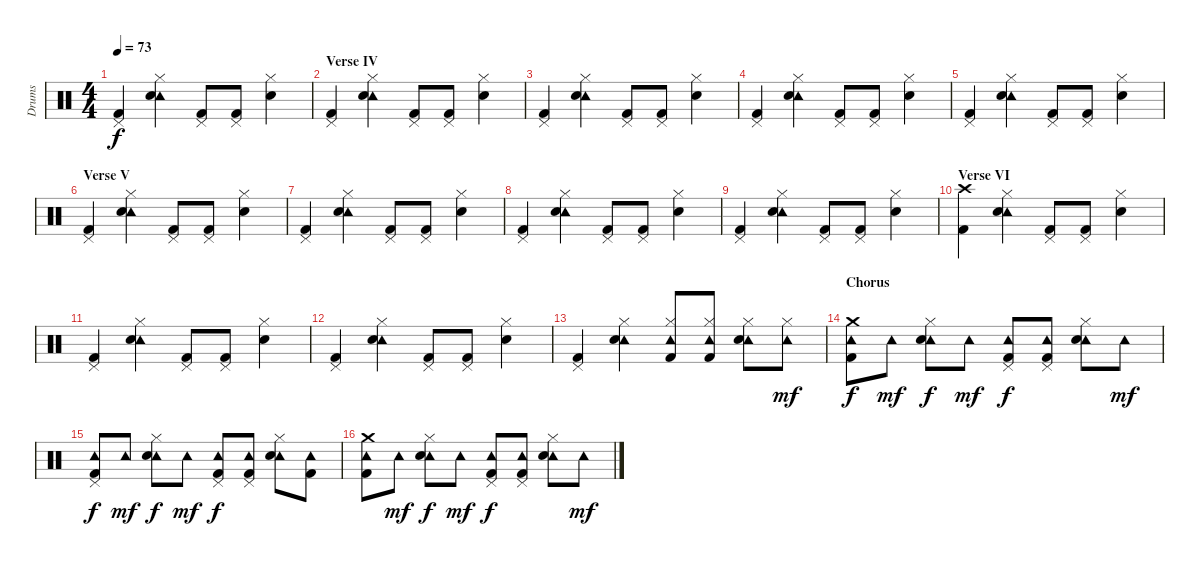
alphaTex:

\track ("Drums" "Drums") {instrument percussion}
\staff {score}
\articulation defaults
\ts (4 4)
\tempo 73
\clef neutral
\ks c
("Pedal Hi-Hat (hit)" "Kick (hit) 2").4{dy f} ("Hi-Hat (closed)" "Tambourine (hit)" "Snare (hit) 2").4 ("Pedal Hi-Hat (hit)" "Kick (hit) 2").8 ("Pedal Hi-Hat (hit)" "Kick (hit) 2").8 ("Hi-Hat (closed)" "Snare (hit) 2").4 |
\section ("" "Verse IV")
("Pedal Hi-Hat (hit)" "Kick (hit) 2").4 ("Hi-Hat (closed)" "Tambourine (hit)" "Snare (hit) 2").4 ("Pedal Hi-Hat (hit)" "Kick (hit) 2").8 ("Pedal Hi-Hat (hit)" "Kick (hit) 2").8 ("Hi-Hat (closed)" "Snare (hit) 2").4 |
("Pedal Hi-Hat (hit)" "Kick (hit) 2").4 ("Hi-Hat (closed)" "Tambourine (hit)" "Snare (hit) 2").4 ("Pedal Hi-Hat (hit)" "Kick (hit) 2").8 ("Pedal Hi-Hat (hit)" "Kick (hit) 2").8 ("Hi-Hat (closed)" "Snare (hit) 2").4 |
("Pedal Hi-Hat (hit)" "Kick (hit) 2").4 ("Hi-Hat (closed)" "Tambourine (hit)" "Snare (hit) 2").4 ("Pedal Hi-Hat (hit)" "Kick (hit) 2").8 ("Pedal Hi-Hat (hit)" "Kick (hit) 2").8 ("Hi-Hat (closed)" "Snare (hit) 2").4 |
("Pedal Hi-Hat (hit)" "Kick (hit) 2").4 ("Hi-Hat (closed)" "Tambourine (hit)" "Snare (hit) 2").4 ("Pedal Hi-Hat (hit)" "Kick (hit) 2").8 ("Pedal Hi-Hat (hit)" "Kick (hit) 2").8 ("Hi-Hat (closed)" "Snare (hit) 2").4 |
\section ("" "Verse V")
("Pedal Hi-Hat (hit)" "Kick (hit) 2").4 ("Hi-Hat (closed)" "Tambourine (hit)" "Snare (hit) 2").4 ("Pedal Hi-Hat (hit)" "Kick (hit) 2").8 ("Pedal Hi-Hat (hit)" "Kick (hit) 2").8 ("Hi-Hat (closed)" "Snare (hit) 2").4 |
("Pedal Hi-Hat (hit)" "Kick (hit) 2").4 ("Hi-Hat (closed)" "Tambourine (hit)" "Snare (hit) 2").4 ("Pedal Hi-Hat (hit)" "Kick (hit) 2").8 ("Pedal Hi-Hat (hit)" "Kick (hit) 2").8 ("Hi-Hat (closed)" "Snare (hit) 2").4 |
("Pedal Hi-Hat (hit)" "Kick (hit) 2").4 ("Hi-Hat (closed)" "Tambourine (hit)" "Snare (hit) 2").4 ("Pedal Hi-Hat (hit)" "Kick (hit) 2").8 ("Pedal Hi-Hat (hit)" "Kick (hit) 2").8 ("Hi-Hat (closed)" "Snare (hit) 2").4 |
("Pedal Hi-Hat (hit)" "Kick (hit) 2").4 ("Hi-Hat (closed)" "Tambourine (hit)" "Snare (hit) 2").4 ("Pedal Hi-Hat (hit)" "Kick (hit) 2").8 ("Pedal Hi-Hat (hit)" "Kick (hit) 2").8 ("Hi-Hat (closed)" "Snare (hit) 2").4 |
\section ("" "Verse VI")
("Crash high (hit)" "Kick (hit) 2").4 ("Hi-Hat (closed)" "Tambourine (hit)" "Snare (hit) 2").4 ("Pedal Hi-Hat (hit)" "Kick (hit) 2").8 ("Pedal Hi-Hat (hit)" "Kick (hit) 2").8 ("Hi-Hat (closed)" "Snare (hit) 2").4 |
("Pedal Hi-Hat (hit)" "Kick (hit) 2").4 ("Hi-Hat (closed)" "Tambourine (hit)" "Snare (hit) 2").4 ("Pedal Hi-Hat (hit)" "Kick (hit) 2").8 ("Pedal Hi-Hat (hit)" "Kick (hit) 2").8 ("Hi-Hat (closed)" "Snare (hit) 2").4 |
("Pedal Hi-Hat (hit)" "Kick (hit) 2").4 ("Hi-Hat (closed)" "Tambourine (hit)" "Snare (hit) 2").4 ("Pedal Hi-Hat (hit)" "Kick (hit) 2").8 ("Pedal Hi-Hat (hit)" "Kick (hit) 2").8 ("Hi-Hat (closed)" "Snare (hit) 2").4 |
("Pedal Hi-Hat (hit)" "Kick (hit) 2").4 ("Hi-Hat (closed)" "Tambourine (hit)" "Snare (hit) 2").4 ("Hi-Hat (closed)" "Tambourine (hit)" "Kick (hit) 2").8 ("Hi-Hat (closed)" "Tambourine (hit)" "Kick (hit) 2").8 ("Hi-Hat (closed)" "Tambourine (hit)" "Snare (hit) 2").8 ("Hi-Hat (closed)" "Tambourine (hit)").8{dy mf} |
\section ("" "Chorus")
("Crash medium (hit)" "Tambourine (hit)" "Kick (hit) 2").8{dy f} "Tambourine (hit)".8{dy mf} ("Hi-Hat (closed)" "Tambourine (hit)" "Snare (hit) 2").8{dy f} "Tambourine (hit)".8{dy mf} ("Pedal Hi-Hat (hit)" "Tambourine (hit)" "Kick (hit) 2").8{dy f} ("Pedal Hi-Hat (hit)" "Tambourine (hit)" "Kick (hit) 2").8 ("Hi-Hat (closed)" "Tambourine (hit)" "Snare (hit) 2").8 "Tambourine (hit)".8{dy mf} |
("Pedal Hi-Hat (hit)" "Tambourine (hit)" "Kick (hit) 2").8{dy f} "Tambourine (hit)".8{dy mf} ("Hi-Hat (closed)" "Tambourine (hit)" "Snare (hit) 2").8{dy f} "Tambourine (hit)".8{dy mf} ("Pedal Hi-Hat (hit)" "Tambourine (hit)" "Kick (hit) 2").8{dy f} ("Pedal Hi-Hat (hit)" "Tambourine (hit)" "Kick (hit) 2").8 ("Hi-Hat (closed)" "Tambourine (hit)" "Snare (hit) 2").8 ("Tambourine (hit)" "Kick (hit) 2").8 |
("Crash medium (hit)" "Tambourine (hit)" "Kick (hit) 2").8 "Tambourine (hit)".8{dy mf} ("Hi-Hat (closed)" "Tambourine (hit)" "Snare (hit) 2").8{dy f} "Tambourine (hit)".8{dy mf} ("Pedal Hi-Hat (hit)" "Tambourine (hit)" "Kick (hit) 2").8{dy f} ("Pedal Hi-Hat (hit)" "Tambourine (hit)" "Kick (hit) 2").8 ("Hi-Hat (closed)" "Tambourine (hit)" "Snare (hit) 2").8 "Tambourine (hit)".8{dy mf}
